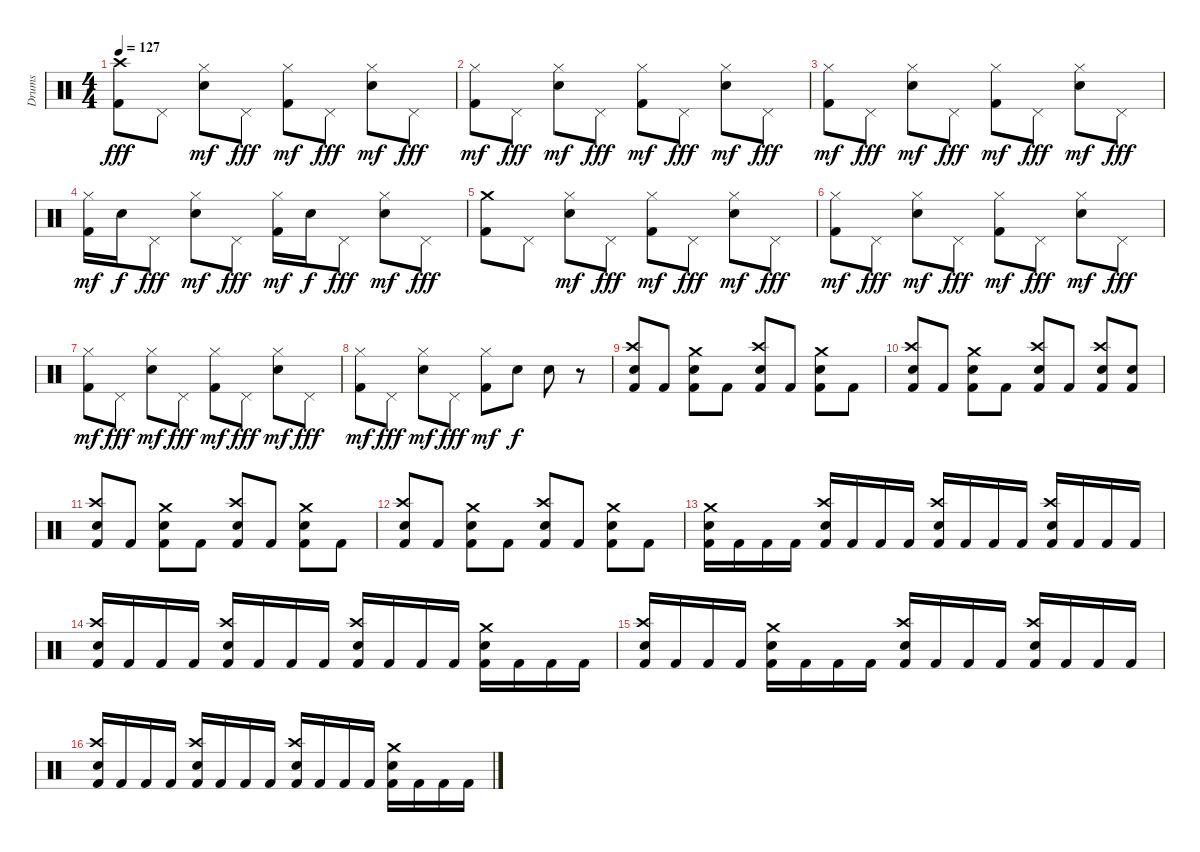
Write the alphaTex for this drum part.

\track ("Drums" "Drums") {instrument percussion}
\staff {score}
\articulation defaults
\ts (4 4)
\tempo 127
\clef neutral
\ks c
("Kick (hit) 2" "Crash high (hit)").8{dy fff} "Pedal Hi-Hat (hit)".8 ("Hi-Hat (closed)" "Electric Snare (hit)").8{dy mf} "Pedal Hi-Hat (hit)".8{dy fff} ("Kick (hit) 2" "Hi-Hat (closed)").8{dy mf} "Pedal Hi-Hat (hit)".8{dy fff} ("Hi-Hat (closed)" "Electric Snare (hit)").8{dy mf} "Pedal Hi-Hat (hit)".8{dy fff} |
("Kick (hit) 2" "Hi-Hat (closed)").8{dy mf} "Pedal Hi-Hat (hit)".8{dy fff} ("Hi-Hat (closed)" "Electric Snare (hit)").8{dy mf} "Pedal Hi-Hat (hit)".8{dy fff} ("Kick (hit) 2" "Hi-Hat (closed)").8{dy mf} "Pedal Hi-Hat (hit)".8{dy fff} ("Hi-Hat (closed)" "Electric Snare (hit)").8{dy mf} "Pedal Hi-Hat (hit)".8{dy fff} |
("Kick (hit) 2" "Hi-Hat (closed)").8{dy mf} "Pedal Hi-Hat (hit)".8{dy fff} ("Hi-Hat (closed)" "Electric Snare (hit)").8{dy mf} "Pedal Hi-Hat (hit)".8{dy fff} ("Kick (hit) 2" "Hi-Hat (closed)").8{dy mf} "Pedal Hi-Hat (hit)".8{dy fff} ("Hi-Hat (closed)" "Electric Snare (hit)").8{dy mf} "Pedal Hi-Hat (hit)".8{dy fff} |
("Kick (hit) 2" "Hi-Hat (closed)").16{dy mf} "Electric Snare (hit)".16{dy f} "Pedal Hi-Hat (hit)".8{dy fff} ("Hi-Hat (closed)" "Electric Snare (hit)").8{dy mf} "Pedal Hi-Hat (hit)".8{dy fff} ("Kick (hit) 2" "Hi-Hat (closed)").16{dy mf} "Electric Snare (hit)".16{dy f} "Pedal Hi-Hat (hit)".8{dy fff} ("Hi-Hat (closed)" "Electric Snare (hit)").8{dy mf} "Pedal Hi-Hat (hit)".8{dy fff} |
("Kick (hit) 2" "Crash medium (hit)").8 "Pedal Hi-Hat (hit)".8 ("Hi-Hat (closed)" "Electric Snare (hit)").8{dy mf} "Pedal Hi-Hat (hit)".8{dy fff} ("Kick (hit) 2" "Hi-Hat (closed)").8{dy mf} "Pedal Hi-Hat (hit)".8{dy fff} ("Hi-Hat (closed)" "Electric Snare (hit)").8{dy mf} "Pedal Hi-Hat (hit)".8{dy fff} |
("Kick (hit) 2" "Hi-Hat (closed)").8{dy mf} "Pedal Hi-Hat (hit)".8{dy fff} ("Hi-Hat (closed)" "Electric Snare (hit)").8{dy mf} "Pedal Hi-Hat (hit)".8{dy fff} ("Kick (hit) 2" "Hi-Hat (closed)").8{dy mf} "Pedal Hi-Hat (hit)".8{dy fff} ("Hi-Hat (closed)" "Electric Snare (hit)").8{dy mf} "Pedal Hi-Hat (hit)".8{dy fff} |
("Kick (hit) 2" "Hi-Hat (closed)").8{dy mf} "Pedal Hi-Hat (hit)".8{dy fff} ("Hi-Hat (closed)" "Electric Snare (hit)").8{dy mf} "Pedal Hi-Hat (hit)".8{dy fff} ("Kick (hit) 2" "Hi-Hat (closed)").8{dy mf} "Pedal Hi-Hat (hit)".8{dy fff} ("Hi-Hat (closed)" "Electric Snare (hit)").8{dy mf} "Pedal Hi-Hat (hit)".8{dy fff} |
("Kick (hit) 2" "Hi-Hat (closed)").8{dy mf} "Pedal Hi-Hat (hit)".8{dy fff} ("Hi-Hat (closed)" "Electric Snare (hit)").8{dy mf} "Pedal Hi-Hat (hit)".8{dy fff} ("Kick (hit) 2" "Hi-Hat (closed)").8{dy mf} "Electric Snare (hit)".8{dy f} "Electric Snare (hit)".8 r.8 |
("Kick (hit) 2" "Crash high (hit)" "Electric Snare (hit)").8 "Kick (hit) 2".8 ("Kick (hit) 2" "Crash medium (hit)" "Electric Snare (hit)").8 "Kick (hit) 2".8 ("Kick (hit) 2" "Crash high (hit)" "Electric Snare (hit)").8 "Kick (hit) 2".8 ("Kick (hit) 2" "Crash medium (hit)" "Electric Snare (hit)").8 "Kick (hit) 2".8 |
("Kick (hit) 2" "Crash high (hit)" "Electric Snare (hit)").8 "Kick (hit) 2".8 ("Kick (hit) 2" "Crash medium (hit)" "Electric Snare (hit)").8 "Kick (hit) 2".8 ("Kick (hit) 2" "Crash high (hit)" "Electric Snare (hit)").8 "Kick (hit) 2".8 ("Kick (hit) 2" "Crash high (hit)" "Electric Snare (hit)").8 ("Kick (hit) 2" "Electric Snare (hit)").8 |
("Kick (hit) 2" "Crash high (hit)" "Electric Snare (hit)").8 "Kick (hit) 2".8 ("Kick (hit) 2" "Crash medium (hit)" "Electric Snare (hit)").8 "Kick (hit) 2".8 ("Kick (hit) 2" "Crash high (hit)" "Electric Snare (hit)").8 "Kick (hit) 2".8 ("Kick (hit) 2" "Crash medium (hit)" "Electric Snare (hit)").8 "Kick (hit) 2".8 |
("Kick (hit) 2" "Crash high (hit)" "Electric Snare (hit)").8 "Kick (hit) 2".8 ("Kick (hit) 2" "Crash medium (hit)" "Electric Snare (hit)").8 "Kick (hit) 2".8 ("Kick (hit) 2" "Crash high (hit)" "Electric Snare (hit)").8 "Kick (hit) 2".8 ("Kick (hit) 2" "Crash medium (hit)" "Electric Snare (hit)").8 "Kick (hit) 2".8 |
("Kick (hit) 2" "Crash medium (hit)" "Electric Snare (hit)").16 "Kick (hit) 2".16 "Kick (hit) 2".16 "Kick (hit) 2".16 ("Kick (hit) 2" "Crash high (hit)" "Electric Snare (hit)").16 "Kick (hit) 2".16 "Kick (hit) 2".16 "Kick (hit) 2".16 ("Kick (hit) 2" "Crash high (hit)" "Electric Snare (hit)").16 "Kick (hit) 2".16 "Kick (hit) 2".16 "Kick (hit) 2".16 ("Kick (hit) 2" "Crash high (hit)" "Electric Snare (hit)").16 "Kick (hit) 2".16 "Kick (hit) 2".16 "Kick (hit) 2".16 |
("Kick (hit) 2" "Crash high (hit)" "Electric Snare (hit)").16 "Kick (hit) 2".16 "Kick (hit) 2".16 "Kick (hit) 2".16 ("Kick (hit) 2" "Crash high (hit)" "Electric Snare (hit)").16 "Kick (hit) 2".16 "Kick (hit) 2".16 "Kick (hit) 2".16 ("Kick (hit) 2" "Crash high (hit)" "Electric Snare (hit)").16 "Kick (hit) 2".16 "Kick (hit) 2".16 "Kick (hit) 2".16 ("Kick (hit) 2" "Crash medium (hit)" "Electric Snare (hit)").16 "Kick (hit) 2".16 "Kick (hit) 2".16 "Kick (hit) 2".16 |
("Kick (hit) 2" "Crash high (hit)" "Electric Snare (hit)").16 "Kick (hit) 2".16 "Kick (hit) 2".16 "Kick (hit) 2".16 ("Kick (hit) 2" "Crash medium (hit)" "Electric Snare (hit)").16 "Kick (hit) 2".16 "Kick (hit) 2".16 "Kick (hit) 2".16 ("Kick (hit) 2" "Crash high (hit)" "Electric Snare (hit)").16 "Kick (hit) 2".16 "Kick (hit) 2".16 "Kick (hit) 2".16 ("Kick (hit) 2" "Crash high (hit)" "Electric Snare (hit)").16 "Kick (hit) 2".16 "Kick (hit) 2".16 "Kick (hit) 2".16 |
("Kick (hit) 2" "Crash high (hit)" "Electric Snare (hit)").16 "Kick (hit) 2".16 "Kick (hit) 2".16 "Kick (hit) 2".16 ("Kick (hit) 2" "Crash high (hit)" "Electric Snare (hit)").16 "Kick (hit) 2".16 "Kick (hit) 2".16 "Kick (hit) 2".16 ("Kick (hit) 2" "Crash high (hit)" "Electric Snare (hit)").16 "Kick (hit) 2".16 "Kick (hit) 2".16 "Kick (hit) 2".16 ("Kick (hit) 2" "Crash medium (hit)" "Electric Snare (hit)").16 "Kick (hit) 2".16 "Kick (hit) 2".16 "Kick (hit) 2".16
